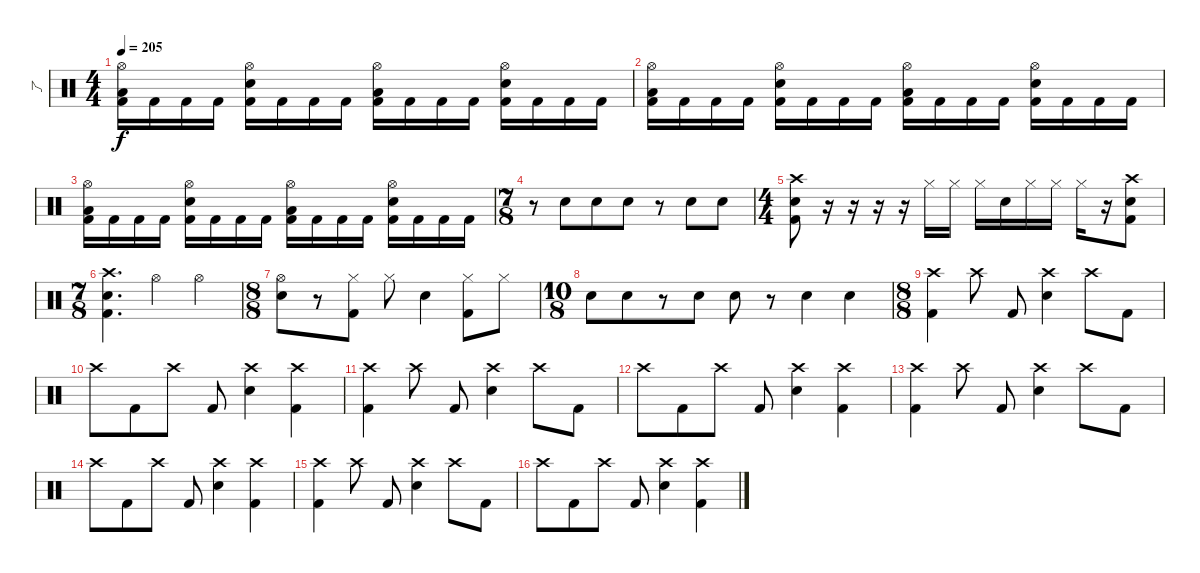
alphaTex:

\track ("了" "了") {instrument percussion}
\staff {score}
\articulation defaults
\ts (4 4)
\tempo 205
\clef neutral
\ks c
("Hi-Hat (open)" "Low Tom (hit)" "Kick (hit) 2").16{dy f} "Kick (hit) 2".16 "Kick (hit) 2".16 "Kick (hit) 2".16 ("Hi-Hat (open)" "Snare (hit) 2" "Kick (hit) 2").16 "Kick (hit) 2".16 "Kick (hit) 2".16 "Kick (hit) 2".16 ("Hi-Hat (open)" "Low Tom (hit)" "Kick (hit) 2").16 "Kick (hit) 2".16 "Kick (hit) 2".16 "Kick (hit) 2".16 ("Hi-Hat (open)" "Snare (hit) 2" "Kick (hit) 2").16 "Kick (hit) 2".16 "Kick (hit) 2".16 "Kick (hit) 2".16 |
("Hi-Hat (open)" "Low Tom (hit)" "Kick (hit) 2").16 "Kick (hit) 2".16 "Kick (hit) 2".16 "Kick (hit) 2".16 ("Hi-Hat (open)" "Snare (hit) 2" "Kick (hit) 2").16 "Kick (hit) 2".16 "Kick (hit) 2".16 "Kick (hit) 2".16 ("Hi-Hat (open)" "Low Tom (hit)" "Kick (hit) 2").16 "Kick (hit) 2".16 "Kick (hit) 2".16 "Kick (hit) 2".16 ("Hi-Hat (open)" "Snare (hit) 2" "Kick (hit) 2").16 "Kick (hit) 2".16 "Kick (hit) 2".16 "Kick (hit) 2".16 |
("Hi-Hat (open)" "Low Tom (hit)" "Kick (hit) 2").16 "Kick (hit) 2".16 "Kick (hit) 2".16 "Kick (hit) 2".16 ("Hi-Hat (open)" "Snare (hit) 2" "Kick (hit) 2").16 "Kick (hit) 2".16 "Kick (hit) 2".16 "Kick (hit) 2".16 ("Hi-Hat (open)" "Low Tom (hit)" "Kick (hit) 2").16 "Kick (hit) 2".16 "Kick (hit) 2".16 "Kick (hit) 2".16 ("Hi-Hat (open)" "Snare (hit) 2" "Kick (hit) 2").16 "Kick (hit) 2".16 "Kick (hit) 2".16 "Kick (hit) 2".16 |
\ts (7 8)
r.8 "Snare (hit) 2".8 "Snare (hit) 2".8 "Snare (hit) 2".8 r.8 "Snare (hit) 2".8 "Snare (hit) 2".8 |
\ts (4 4)
("Snare (hit) 2" "Kick (hit) 2" "Crash high (hit)").8 r.16 r.16 r.16 r.16 "Hi-Hat (closed)".16 "Hi-Hat (closed)".16 "Hi-Hat (closed)".16 "Snare (hit)".16 "Hi-Hat (closed)".16 "Hi-Hat (closed)".16 "Hi-Hat (closed)".16 r.16 ("Crash high (hit)" "Kick (hit) 2" "Snare (hit) 2").8 |
\ts (7 8)
("Crash high (hit)" "Kick (hit) 2" "Snare (hit) 2").4{d} "Hi-Hat (open)".4 "Hi-Hat (open)".4 |
\ts (8 8)
("Snare (hit) 2" "Hi-Hat (open)").8 r.8 ("Hi-Hat (closed)" "Kick (hit) 2").8 "Hi-Hat (closed)".8 "Snare (hit) 2".4 ("Hi-Hat (closed)" "Kick (hit) 2").8 "Hi-Hat (closed)".8 |
\ts (10 8)
"Electric Snare (hit)".8 "Electric Snare (hit)".8 r.8 "Electric Snare (hit)".8 "Electric Snare (hit)".8 r.8 "Electric Snare (hit)".4 "Electric Snare (hit)".4 |
\ts (8 8)
("Kick (hit) 2" "Crash high (hit)").4 "Crash high (hit)".8 "Kick (hit) 2".8 ("Snare (hit) 2" "Crash high (hit)").4 "Crash high (hit)".8 "Kick (hit) 2".8 |
"Crash high (hit)".8 "Kick (hit) 2".8 "Crash high (hit)".8 "Kick (hit) 2".8 ("Snare (hit) 2" "Crash high (hit)").4 ("Kick (hit) 2" "Crash high (hit)").4 |
("Kick (hit) 2" "Crash high (hit)").4 "Crash high (hit)".8 "Kick (hit) 2".8 ("Snare (hit) 2" "Crash high (hit)").4 "Crash high (hit)".8 "Kick (hit) 2".8 |
"Crash high (hit)".8 "Kick (hit) 2".8 "Crash high (hit)".8 "Kick (hit) 2".8 ("Snare (hit) 2" "Crash high (hit)").4 ("Kick (hit) 2" "Crash high (hit)").4 |
("Kick (hit) 2" "Crash high (hit)").4 "Crash high (hit)".8 "Kick (hit) 2".8 ("Snare (hit) 2" "Crash high (hit)").4 "Crash high (hit)".8 "Kick (hit) 2".8 |
"Crash high (hit)".8 "Kick (hit) 2".8 "Crash high (hit)".8 "Kick (hit) 2".8 ("Snare (hit) 2" "Crash high (hit)").4 ("Kick (hit) 2" "Crash high (hit)").4 |
("Kick (hit) 2" "Crash high (hit)").4 "Crash high (hit)".8 "Kick (hit) 2".8 ("Snare (hit) 2" "Crash high (hit)").4 "Crash high (hit)".8 "Kick (hit) 2".8 |
"Crash high (hit)".8 "Kick (hit) 2".8 "Crash high (hit)".8 "Kick (hit) 2".8 ("Snare (hit) 2" "Crash high (hit)").4 ("Kick (hit) 2" "Crash high (hit)").4
